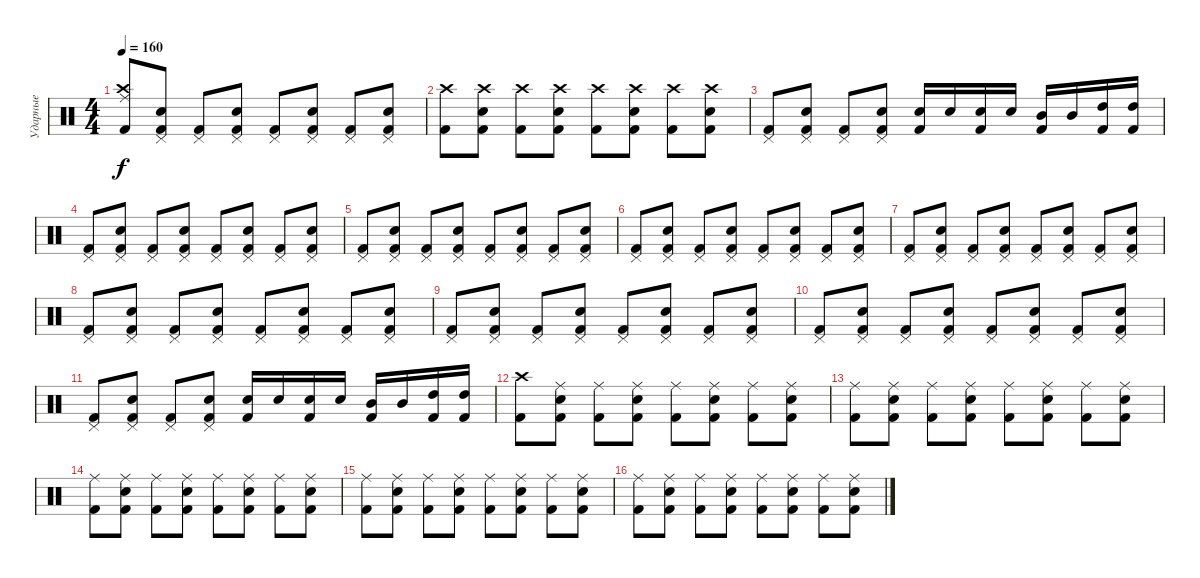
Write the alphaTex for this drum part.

\track ("Ударные" "Ударные") {instrument percussion}
\staff {score}
\articulation defaults
\ts (4 4)
\tempo 160
\clef neutral
\ks c
("Kick (hit) 2" "Crash high (hit)" "Ride (middle)").8{dy f} ("Kick (hit) 2" "Snare (hit) 2" "Pedal Hi-Hat (hit)").8 ("Kick (hit) 2" "Pedal Hi-Hat (hit)").8 ("Kick (hit) 2" "Snare (hit) 2" "Pedal Hi-Hat (hit)").8 ("Kick (hit) 2" "Pedal Hi-Hat (hit)").8 ("Kick (hit) 2" "Snare (hit) 2" "Pedal Hi-Hat (hit)").8 ("Kick (hit) 2" "Pedal Hi-Hat (hit)").8 ("Kick (hit) 2" "Snare (hit) 2" "Pedal Hi-Hat (hit)").8 |
("Kick (hit) 2" "Crash high (hit)").8 ("Kick (hit) 2" "Snare (hit) 2" "Crash high (hit)").8 ("Kick (hit) 2" "Crash high (hit)").8 ("Kick (hit) 2" "Snare (hit) 2" "Crash high (hit)").8 ("Kick (hit) 2" "Crash high (hit)").8 ("Kick (hit) 2" "Snare (hit) 2" "Crash high (hit)").8 ("Kick (hit) 2" "Crash high (hit)").8 ("Kick (hit) 2" "Snare (hit) 2" "Crash high (hit)").8 |
("Kick (hit) 2" "Pedal Hi-Hat (hit)").8 ("Kick (hit) 2" "Snare (hit) 2" "Pedal Hi-Hat (hit)").8 ("Kick (hit) 2" "Pedal Hi-Hat (hit)").8 ("Kick (hit) 2" "Snare (hit) 2" "Pedal Hi-Hat (hit)").8 ("Kick (hit) 2" "Snare (hit) 2").16 "Snare (hit) 2".16 ("Kick (hit) 2" "Snare (hit) 2").16 "Snare (hit) 2".16 ("Kick (hit) 2" "Mid Tom (hit)").16 "Mid Tom (hit)".16 ("Kick (hit) 2" "High Tom (hit)").16 ("Kick (hit) 2" "High Tom (hit)").16 |
("Kick (hit) 2" "Pedal Hi-Hat (hit)").8 ("Kick (hit) 2" "Snare (hit) 2" "Pedal Hi-Hat (hit)").8 ("Kick (hit) 2" "Pedal Hi-Hat (hit)").8 ("Kick (hit) 2" "Snare (hit) 2" "Pedal Hi-Hat (hit)").8 ("Kick (hit) 2" "Pedal Hi-Hat (hit)").8 ("Kick (hit) 2" "Snare (hit) 2" "Pedal Hi-Hat (hit)").8 ("Kick (hit) 2" "Pedal Hi-Hat (hit)").8 ("Kick (hit) 2" "Snare (hit) 2" "Pedal Hi-Hat (hit)").8 |
("Kick (hit) 2" "Pedal Hi-Hat (hit)").8 ("Kick (hit) 2" "Snare (hit) 2" "Pedal Hi-Hat (hit)").8 ("Kick (hit) 2" "Pedal Hi-Hat (hit)").8 ("Kick (hit) 2" "Snare (hit) 2" "Pedal Hi-Hat (hit)").8 ("Kick (hit) 2" "Pedal Hi-Hat (hit)").8 ("Kick (hit) 2" "Snare (hit) 2" "Pedal Hi-Hat (hit)").8 ("Kick (hit) 2" "Pedal Hi-Hat (hit)").8 ("Kick (hit) 2" "Snare (hit) 2" "Pedal Hi-Hat (hit)").8 |
("Kick (hit) 2" "Pedal Hi-Hat (hit)").8 ("Kick (hit) 2" "Snare (hit) 2" "Pedal Hi-Hat (hit)").8 ("Kick (hit) 2" "Pedal Hi-Hat (hit)").8 ("Kick (hit) 2" "Snare (hit) 2" "Pedal Hi-Hat (hit)").8 ("Kick (hit) 2" "Pedal Hi-Hat (hit)").8 ("Kick (hit) 2" "Snare (hit) 2" "Pedal Hi-Hat (hit)").8 ("Kick (hit) 2" "Pedal Hi-Hat (hit)").8 ("Kick (hit) 2" "Snare (hit) 2" "Pedal Hi-Hat (hit)").8 |
("Kick (hit) 2" "Pedal Hi-Hat (hit)").8 ("Kick (hit) 2" "Snare (hit) 2" "Pedal Hi-Hat (hit)").8 ("Kick (hit) 2" "Pedal Hi-Hat (hit)").8 ("Kick (hit) 2" "Snare (hit) 2" "Pedal Hi-Hat (hit)").8 ("Kick (hit) 2" "Pedal Hi-Hat (hit)").8 ("Kick (hit) 2" "Snare (hit) 2" "Pedal Hi-Hat (hit)").8 ("Kick (hit) 2" "Pedal Hi-Hat (hit)").8 ("Kick (hit) 2" "Snare (hit) 2" "Pedal Hi-Hat (hit)").8 |
("Kick (hit) 2" "Pedal Hi-Hat (hit)").8 ("Kick (hit) 2" "Snare (hit) 2" "Pedal Hi-Hat (hit)").8 ("Kick (hit) 2" "Pedal Hi-Hat (hit)").8 ("Kick (hit) 2" "Snare (hit) 2" "Pedal Hi-Hat (hit)").8 ("Kick (hit) 2" "Pedal Hi-Hat (hit)").8 ("Kick (hit) 2" "Snare (hit) 2" "Pedal Hi-Hat (hit)").8 ("Kick (hit) 2" "Pedal Hi-Hat (hit)").8 ("Kick (hit) 2" "Snare (hit) 2" "Pedal Hi-Hat (hit)").8 |
("Kick (hit) 2" "Pedal Hi-Hat (hit)").8 ("Kick (hit) 2" "Snare (hit) 2" "Pedal Hi-Hat (hit)").8 ("Kick (hit) 2" "Pedal Hi-Hat (hit)").8 ("Kick (hit) 2" "Snare (hit) 2" "Pedal Hi-Hat (hit)").8 ("Kick (hit) 2" "Pedal Hi-Hat (hit)").8 ("Kick (hit) 2" "Snare (hit) 2" "Pedal Hi-Hat (hit)").8 ("Kick (hit) 2" "Pedal Hi-Hat (hit)").8 ("Kick (hit) 2" "Snare (hit) 2" "Pedal Hi-Hat (hit)").8 |
("Kick (hit) 2" "Pedal Hi-Hat (hit)").8 ("Kick (hit) 2" "Snare (hit) 2" "Pedal Hi-Hat (hit)").8 ("Kick (hit) 2" "Pedal Hi-Hat (hit)").8 ("Kick (hit) 2" "Snare (hit) 2" "Pedal Hi-Hat (hit)").8 ("Kick (hit) 2" "Pedal Hi-Hat (hit)").8 ("Kick (hit) 2" "Snare (hit) 2" "Pedal Hi-Hat (hit)").8 ("Kick (hit) 2" "Pedal Hi-Hat (hit)").8 ("Kick (hit) 2" "Snare (hit) 2" "Pedal Hi-Hat (hit)").8 |
("Kick (hit) 2" "Pedal Hi-Hat (hit)").8 ("Kick (hit) 2" "Snare (hit) 2" "Pedal Hi-Hat (hit)").8 ("Kick (hit) 2" "Pedal Hi-Hat (hit)").8 ("Kick (hit) 2" "Snare (hit) 2" "Pedal Hi-Hat (hit)").8 ("Kick (hit) 2" "Snare (hit) 2").16 "Snare (hit) 2".16 ("Kick (hit) 2" "Snare (hit) 2").16 "Snare (hit) 2".16 ("Kick (hit) 2" "Mid Tom (hit)").16 "Mid Tom (hit)".16 ("Kick (hit) 2" "High Tom (hit)").16 ("Kick (hit) 2" "High Tom (hit)").16 |
("Kick (hit) 2" "Crash high (hit)").8 ("Kick (hit) 2" "Snare (hit) 2" "Ride (middle)").8 ("Kick (hit) 2" "Ride (middle)").8 ("Kick (hit) 2" "Snare (hit) 2" "Ride (middle)").8 ("Kick (hit) 2" "Ride (middle)").8 ("Kick (hit) 2" "Snare (hit) 2" "Ride (middle)").8 ("Kick (hit) 2" "Ride (middle)").8 ("Kick (hit) 2" "Snare (hit) 2" "Ride (middle)").8 |
("Kick (hit) 2" "Ride (middle)").8 ("Kick (hit) 2" "Snare (hit) 2" "Ride (middle)").8 ("Kick (hit) 2" "Ride (middle)").8 ("Kick (hit) 2" "Snare (hit) 2" "Ride (middle)").8 ("Kick (hit) 2" "Ride (middle)").8 ("Kick (hit) 2" "Snare (hit) 2" "Ride (middle)").8 ("Kick (hit) 2" "Ride (middle)").8 ("Kick (hit) 2" "Snare (hit) 2" "Ride (middle)").8 |
("Kick (hit) 2" "Ride (middle)").8 ("Kick (hit) 2" "Snare (hit) 2" "Ride (middle)").8 ("Kick (hit) 2" "Ride (middle)").8 ("Kick (hit) 2" "Snare (hit) 2" "Ride (middle)").8 ("Kick (hit) 2" "Ride (middle)").8 ("Kick (hit) 2" "Snare (hit) 2" "Ride (middle)").8 ("Kick (hit) 2" "Ride (middle)").8 ("Kick (hit) 2" "Snare (hit) 2" "Ride (middle)").8 |
("Kick (hit) 2" "Ride (middle)").8 ("Kick (hit) 2" "Snare (hit) 2" "Ride (middle)").8 ("Kick (hit) 2" "Ride (middle)").8 ("Kick (hit) 2" "Snare (hit) 2" "Ride (middle)").8 ("Kick (hit) 2" "Ride (middle)").8 ("Kick (hit) 2" "Snare (hit) 2" "Ride (middle)").8 ("Kick (hit) 2" "Ride (middle)").8 ("Kick (hit) 2" "Snare (hit) 2" "Ride (middle)").8 |
("Kick (hit) 2" "Ride (middle)").8 ("Kick (hit) 2" "Snare (hit) 2" "Ride (middle)").8 ("Kick (hit) 2" "Ride (middle)").8 ("Kick (hit) 2" "Snare (hit) 2" "Ride (middle)").8 ("Kick (hit) 2" "Ride (middle)").8 ("Kick (hit) 2" "Snare (hit) 2" "Ride (middle)").8 ("Kick (hit) 2" "Ride (middle)").8 ("Kick (hit) 2" "Snare (hit) 2" "Ride (middle)").8
